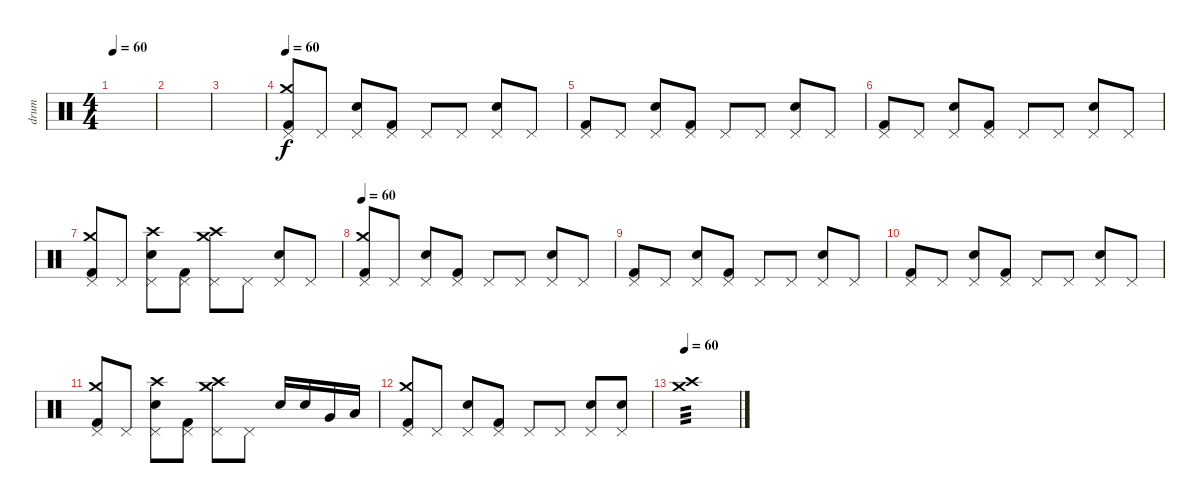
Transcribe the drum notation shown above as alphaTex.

\track ("drum" "drum") {instrument percussion}
\staff {score}
\articulation defaults
\ts (4 4)
\tempo 60
\clef neutral
\ks c
|
|
|
\tempo 60
("Pedal Hi-Hat (hit)" "Crash medium (hit)" "Kick (hit) 2").8 "Pedal Hi-Hat (hit)".8 ("Pedal Hi-Hat (hit)" "Electric Snare (hit)").8 ("Pedal Hi-Hat (hit)" "Kick (hit) 2").8 "Pedal Hi-Hat (hit)".8 "Pedal Hi-Hat (hit)".8 ("Pedal Hi-Hat (hit)" "Electric Snare (hit)").8 "Pedal Hi-Hat (hit)".8 |
("Pedal Hi-Hat (hit)" "Kick (hit) 2").8 "Pedal Hi-Hat (hit)".8 ("Pedal Hi-Hat (hit)" "Electric Snare (hit)").8 ("Pedal Hi-Hat (hit)" "Kick (hit) 2").8 "Pedal Hi-Hat (hit)".8 "Pedal Hi-Hat (hit)".8 ("Pedal Hi-Hat (hit)" "Electric Snare (hit)").8 "Pedal Hi-Hat (hit)".8 |
("Pedal Hi-Hat (hit)" "Kick (hit) 2").8 "Pedal Hi-Hat (hit)".8 ("Pedal Hi-Hat (hit)" "Electric Snare (hit)").8 ("Pedal Hi-Hat (hit)" "Kick (hit) 2").8 "Pedal Hi-Hat (hit)".8 "Pedal Hi-Hat (hit)".8 ("Pedal Hi-Hat (hit)" "Electric Snare (hit)").8 "Pedal Hi-Hat (hit)".8 |
("Pedal Hi-Hat (hit)" "Crash medium (hit)" "Kick (hit) 2").8 "Pedal Hi-Hat (hit)".8 ("Pedal Hi-Hat (hit)" "Crash high (hit)" "Electric Snare (hit)").8 ("Pedal Hi-Hat (hit)" "Kick (hit) 2").8 ("Pedal Hi-Hat (hit)" "Crash medium (hit)" "Crash high (hit)").8 "Pedal Hi-Hat (hit)".8 ("Pedal Hi-Hat (hit)" "Electric Snare (hit)").8 "Pedal Hi-Hat (hit)".8 |
\tempo 60
("Pedal Hi-Hat (hit)" "Crash medium (hit)" "Kick (hit) 2").8 "Pedal Hi-Hat (hit)".8 ("Pedal Hi-Hat (hit)" "Electric Snare (hit)").8 ("Pedal Hi-Hat (hit)" "Kick (hit) 2").8 "Pedal Hi-Hat (hit)".8 "Pedal Hi-Hat (hit)".8 ("Pedal Hi-Hat (hit)" "Electric Snare (hit)").8 "Pedal Hi-Hat (hit)".8 |
("Pedal Hi-Hat (hit)" "Kick (hit) 2").8 "Pedal Hi-Hat (hit)".8 ("Pedal Hi-Hat (hit)" "Electric Snare (hit)").8 ("Pedal Hi-Hat (hit)" "Kick (hit) 2").8 "Pedal Hi-Hat (hit)".8 "Pedal Hi-Hat (hit)".8 ("Pedal Hi-Hat (hit)" "Electric Snare (hit)").8 "Pedal Hi-Hat (hit)".8 |
("Pedal Hi-Hat (hit)" "Kick (hit) 2").8 "Pedal Hi-Hat (hit)".8 ("Pedal Hi-Hat (hit)" "Electric Snare (hit)").8 ("Pedal Hi-Hat (hit)" "Kick (hit) 2").8 "Pedal Hi-Hat (hit)".8 "Pedal Hi-Hat (hit)".8 ("Pedal Hi-Hat (hit)" "Electric Snare (hit)").8 "Pedal Hi-Hat (hit)".8 |
("Pedal Hi-Hat (hit)" "Crash medium (hit)" "Kick (hit) 2").8 "Pedal Hi-Hat (hit)".8 ("Pedal Hi-Hat (hit)" "Crash high (hit)" "Electric Snare (hit)").8 ("Pedal Hi-Hat (hit)" "Kick (hit) 2").8 ("Pedal Hi-Hat (hit)" "Crash medium (hit)" "Crash high (hit)").8 "Pedal Hi-Hat (hit)".8 "Electric Snare (hit)".16 "Electric Snare (hit)".16 "Very Low Tom (hit)".16 "Low Floor Tom (hit)".16 |
("Pedal Hi-Hat (hit)" "Crash medium (hit)" "Kick (hit) 2").8 "Pedal Hi-Hat (hit)".8 ("Pedal Hi-Hat (hit)" "Electric Snare (hit)").8 ("Pedal Hi-Hat (hit)" "Kick (hit) 2").8 "Pedal Hi-Hat (hit)".8 "Pedal Hi-Hat (hit)".8 ("Pedal Hi-Hat (hit)" "Electric Snare (hit)").8 ("Pedal Hi-Hat (hit)" "Electric Snare (hit)").8 |
\tempo 60
("Crash high (hit)" "Crash medium (hit)").1{tp 3}
